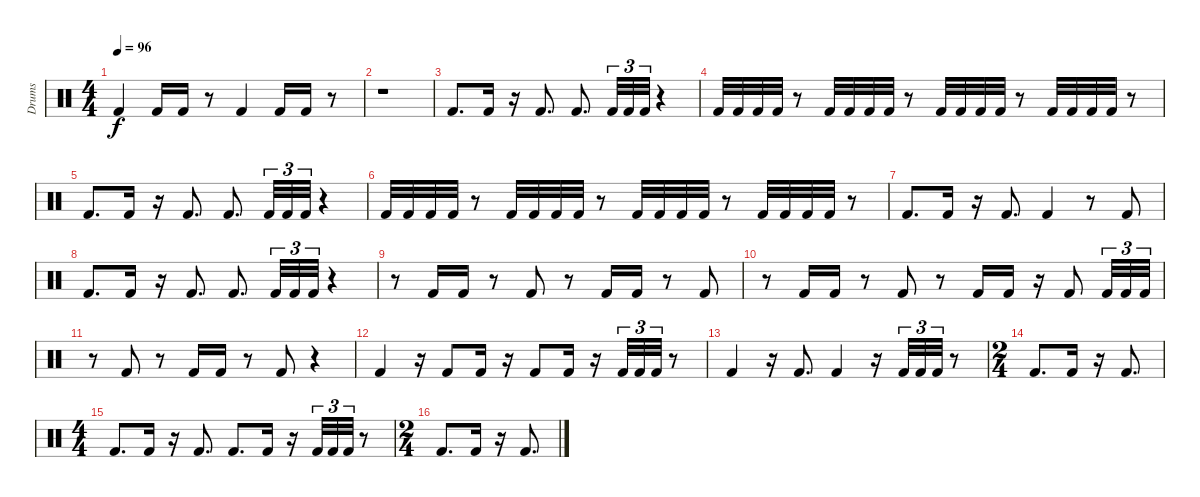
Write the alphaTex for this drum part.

\track ("Drums" "Drums") {instrument percussion}
\staff {score}
\articulation defaults
\ts (4 4)
\tempo 96
\clef neutral
\ks c "Kick (hit) 2".4{dy f} "Kick (hit) 2".16 "Kick (hit) 2".16
r.8 "Kick (hit) 2".4 "Kick (hit) 2".16 "Kick (hit) 2".16 r.8 |
r.1 |
"Kick (hit) 2".8{d} "Kick (hit) 2".16 r.16 "Kick (hit) 2".8{d} "Kick (hit) 2".8{d} "Kick (hit) 2".32{tu (3 2)} "Kick (hit) 2".32{tu (3 2)} "Kick (hit) 2".32{tu (3 2)} r.4 |
"Kick (hit) 2".32 "Kick (hit) 2".32 "Kick (hit) 2".32 "Kick (hit) 2".32 r.8 "Kick (hit) 2".32 "Kick (hit) 2".32 "Kick (hit) 2".32 "Kick (hit) 2".32 r.8 "Kick (hit) 2".32 "Kick (hit) 2".32 "Kick (hit) 2".32 "Kick (hit) 2".32 r.8 "Kick (hit) 2".32 "Kick (hit) 2".32 "Kick (hit) 2".32 "Kick (hit) 2".32 r.8 |
"Kick (hit) 2".8{d} "Kick (hit) 2".16 r.16 "Kick (hit) 2".8{d} "Kick (hit) 2".8{d} "Kick (hit) 2".32{tu (3 2)} "Kick (hit) 2".32{tu (3 2)} "Kick (hit) 2".32{tu (3 2)} r.4 |
"Kick (hit) 2".32 "Kick (hit) 2".32 "Kick (hit) 2".32 "Kick (hit) 2".32 r.8 "Kick (hit) 2".32 "Kick (hit) 2".32 "Kick (hit) 2".32 "Kick (hit) 2".32 r.8 "Kick (hit) 2".32 "Kick (hit) 2".32 "Kick (hit) 2".32 "Kick (hit) 2".32 r.8 "Kick (hit) 2".32 "Kick (hit) 2".32 "Kick (hit) 2".32 "Kick (hit) 2".32 r.8 |
"Kick (hit) 2".8{d} "Kick (hit) 2".16 r.16 "Kick (hit) 2".8{d} "Kick (hit) 2".4 r.8 "Kick (hit) 2".8 |
"Kick (hit) 2".8{d} "Kick (hit) 2".16 r.16 "Kick (hit) 2".8{d} "Kick (hit) 2".8{d} "Kick (hit) 2".32{tu (3 2)} "Kick (hit) 2".32{tu (3 2)} "Kick (hit) 2".32{tu (3 2)} r.4 |
r.8 "Kick (hit) 2".16 "Kick (hit) 2".16 r.8 "Kick (hit) 2".8 r.8 "Kick (hit) 2".16 "Kick (hit) 2".16 r.8 "Kick (hit) 2".8 |
r.8 "Kick (hit) 2".16 "Kick (hit) 2".16 r.8 "Kick (hit) 2".8 r.8 "Kick (hit) 2".16 "Kick (hit) 2".16 r.16 "Kick (hit) 2".8 "Kick (hit) 2".32{tu (3 2)} "Kick (hit) 2".32{tu (3 2)} "Kick (hit) 2".32{tu (3 2)} |
r.8 "Kick (hit) 2".8 r.8 "Kick (hit) 2".16 "Kick (hit) 2".16 r.8 "Kick (hit) 2".8 r.4 |
"Kick (hit) 2".4 r.16 "Kick (hit) 2".8 "Kick (hit) 2".16 r.16 "Kick (hit) 2".8 "Kick (hit) 2".16 r.16 "Kick (hit) 2".32{tu (3 2)} "Kick (hit) 2".32{tu (3 2)} "Kick (hit) 2".32{tu (3 2)} r.8 |
"Kick (hit) 2".4 r.16 "Kick (hit) 2".8{d} "Kick (hit) 2".4 r.16 "Kick (hit) 2".32{tu (3 2)} "Kick (hit) 2".32{tu (3 2)} "Kick (hit) 2".32{tu (3 2)} r.8 |
\ts (2 4)
"Kick (hit) 2".8{d} "Kick (hit) 2".16 r.16 "Kick (hit) 2".8{d} |
\ts (4 4)
"Kick (hit) 2".8{d} "Kick (hit) 2".16 r.16 "Kick (hit) 2".8{d} "Kick (hit) 2".8{d} "Kick (hit) 2".16 r.16 "Kick (hit) 2".32{tu (3 2)} "Kick (hit) 2".32{tu (3 2)} "Kick (hit) 2".32{tu (3 2)} r.8 |
\ts (2 4)
"Kick (hit) 2".8{d} "Kick (hit) 2".16 r.16 "Kick (hit) 2".8{d}
